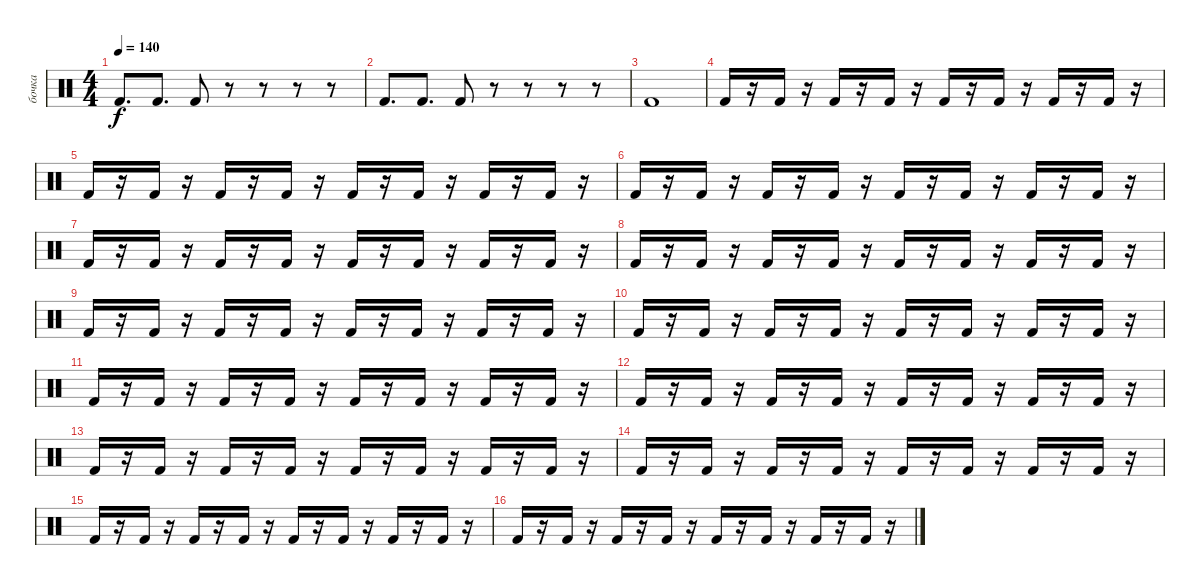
\track ("бочка" "бочка") {mute instrument percussion}
\staff {score}
\articulation defaults
\ts (4 4)
\tempo 140
\clef neutral
\ks c "Kick (hit) 2".8{d dy f} "Kick (hit) 2".8{d} "Kick (hit) 2".8
r.8 r.8 r.8 r.8 |
"Kick (hit) 2".8{d} "Kick (hit) 2".8{d} "Kick (hit) 2".8 r.8 r.8 r.8 r.8 |
"Kick (hit) 2".1 |
"Kick (hit) 2".16 r.16 "Kick (hit) 2".16 r.16 "Kick (hit) 2".16 r.16 "Kick (hit) 2".16 r.16 "Kick (hit) 2".16 r.16 "Kick (hit) 2".16 r.16 "Kick (hit) 2".16 r.16 "Kick (hit) 2".16 r.16 |
"Kick (hit) 2".16 r.16 "Kick (hit) 2".16 r.16 "Kick (hit) 2".16 r.16 "Kick (hit) 2".16 r.16 "Kick (hit) 2".16 r.16 "Kick (hit) 2".16 r.16 "Kick (hit) 2".16 r.16 "Kick (hit) 2".16 r.16 |
"Kick (hit) 2".16 r.16 "Kick (hit) 2".16 r.16 "Kick (hit) 2".16 r.16 "Kick (hit) 2".16 r.16 "Kick (hit) 2".16 r.16 "Kick (hit) 2".16 r.16 "Kick (hit) 2".16 r.16 "Kick (hit) 2".16 r.16 |
"Kick (hit) 2".16 r.16 "Kick (hit) 2".16 r.16 "Kick (hit) 2".16 r.16 "Kick (hit) 2".16 r.16 "Kick (hit) 2".16 r.16 "Kick (hit) 2".16 r.16 "Kick (hit) 2".16 r.16 "Kick (hit) 2".16 r.16 |
"Kick (hit) 2".16 r.16 "Kick (hit) 2".16 r.16 "Kick (hit) 2".16 r.16 "Kick (hit) 2".16 r.16 "Kick (hit) 2".16 r.16 "Kick (hit) 2".16 r.16 "Kick (hit) 2".16 r.16 "Kick (hit) 2".16 r.16 |
"Kick (hit) 2".16 r.16 "Kick (hit) 2".16 r.16 "Kick (hit) 2".16 r.16 "Kick (hit) 2".16 r.16 "Kick (hit) 2".16 r.16 "Kick (hit) 2".16 r.16 "Kick (hit) 2".16 r.16 "Kick (hit) 2".16 r.16 |
"Kick (hit) 2".16 r.16 "Kick (hit) 2".16 r.16 "Kick (hit) 2".16 r.16 "Kick (hit) 2".16 r.16 "Kick (hit) 2".16 r.16 "Kick (hit) 2".16 r.16 "Kick (hit) 2".16 r.16 "Kick (hit) 2".16 r.16 |
"Kick (hit) 2".16 r.16 "Kick (hit) 2".16 r.16 "Kick (hit) 2".16 r.16 "Kick (hit) 2".16 r.16 "Kick (hit) 2".16 r.16 "Kick (hit) 2".16 r.16 "Kick (hit) 2".16 r.16 "Kick (hit) 2".16 r.16 |
"Kick (hit) 2".16 r.16 "Kick (hit) 2".16 r.16 "Kick (hit) 2".16 r.16 "Kick (hit) 2".16 r.16 "Kick (hit) 2".16 r.16 "Kick (hit) 2".16 r.16 "Kick (hit) 2".16 r.16 "Kick (hit) 2".16 r.16 |
"Kick (hit) 2".16 r.16 "Kick (hit) 2".16 r.16 "Kick (hit) 2".16 r.16 "Kick (hit) 2".16 r.16 "Kick (hit) 2".16 r.16 "Kick (hit) 2".16 r.16 "Kick (hit) 2".16 r.16 "Kick (hit) 2".16 r.16 |
"Kick (hit) 2".16 r.16 "Kick (hit) 2".16 r.16 "Kick (hit) 2".16 r.16 "Kick (hit) 2".16 r.16 "Kick (hit) 2".16 r.16 "Kick (hit) 2".16 r.16 "Kick (hit) 2".16 r.16 "Kick (hit) 2".16 r.16 |
"Kick (hit) 2".16 r.16 "Kick (hit) 2".16 r.16 "Kick (hit) 2".16 r.16 "Kick (hit) 2".16 r.16 "Kick (hit) 2".16 r.16 "Kick (hit) 2".16 r.16 "Kick (hit) 2".16 r.16 "Kick (hit) 2".16 r.16 |
"Kick (hit) 2".16 r.16 "Kick (hit) 2".16 r.16 "Kick (hit) 2".16 r.16 "Kick (hit) 2".16 r.16 "Kick (hit) 2".16 r.16 "Kick (hit) 2".16 r.16 "Kick (hit) 2".16 r.16 "Kick (hit) 2".16 r.16
